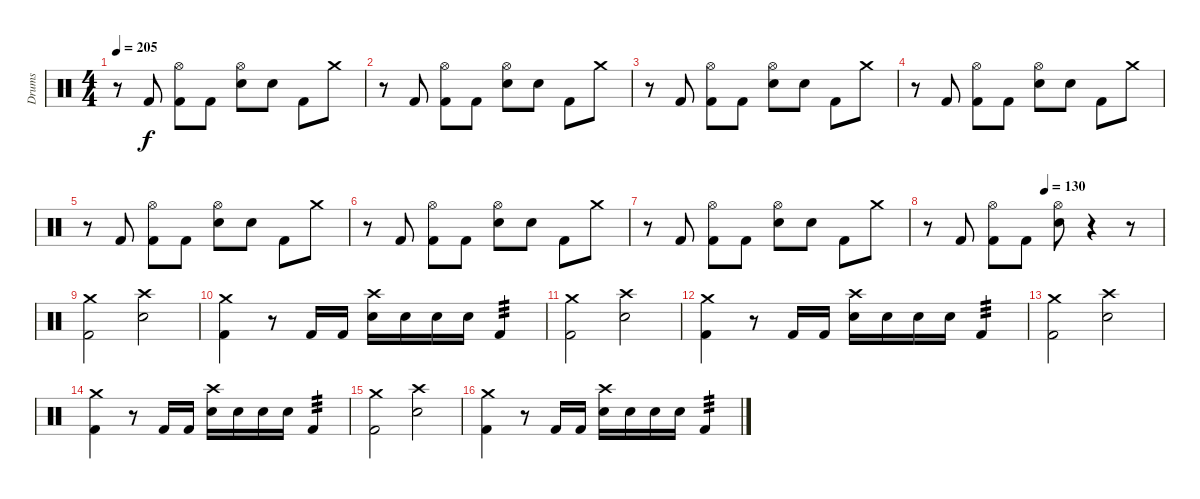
\track ("Drums" "Drums") {instrument percussion}
\staff {score}
\articulation defaults
\ts (4 4)
\tempo 205
\clef neutral
\ks c
r.8{dy f} "Kick (hit) 2".8 ("Hi-Hat (open)" "Kick (hit) 2").8 "Kick (hit) 2".8 ("Hi-Hat (open)" "Electric Snare (hit)").8 "Electric Snare (hit)".8 "Kick (hit) 2".8 "Crash medium (hit)".8 |
r.8 "Kick (hit) 2".8 ("Hi-Hat (open)" "Kick (hit) 2").8 "Kick (hit) 2".8 ("Hi-Hat (open)" "Electric Snare (hit)").8 "Electric Snare (hit)".8 "Kick (hit) 2".8 "Crash medium (hit)".8 |
r.8 "Kick (hit) 2".8 ("Hi-Hat (open)" "Kick (hit) 2").8 "Kick (hit) 2".8 ("Hi-Hat (open)" "Electric Snare (hit)").8 "Electric Snare (hit)".8 "Kick (hit) 2".8 "Crash medium (hit)".8 |
r.8 "Kick (hit) 2".8 ("Hi-Hat (open)" "Kick (hit) 2").8 "Kick (hit) 2".8 ("Hi-Hat (open)" "Electric Snare (hit)").8 "Electric Snare (hit)".8 "Kick (hit) 2".8 "Crash medium (hit)".8 |
r.8 "Kick (hit) 2".8 ("Hi-Hat (open)" "Kick (hit) 2").8 "Kick (hit) 2".8 ("Hi-Hat (open)" "Electric Snare (hit)").8 "Electric Snare (hit)".8 "Kick (hit) 2".8 "Crash medium (hit)".8 |
r.8 "Kick (hit) 2".8 ("Hi-Hat (open)" "Kick (hit) 2").8 "Kick (hit) 2".8 ("Hi-Hat (open)" "Electric Snare (hit)").8 "Electric Snare (hit)".8 "Kick (hit) 2".8 "Crash medium (hit)".8 |
r.8 "Kick (hit) 2".8 ("Hi-Hat (open)" "Kick (hit) 2").8 "Kick (hit) 2".8 ("Hi-Hat (open)" "Electric Snare (hit)").8 "Electric Snare (hit)".8 "Kick (hit) 2".8 "Crash medium (hit)".8 |
\tempo (130 0.5)
r.8 "Kick (hit) 2".8 ("Hi-Hat (open)" "Kick (hit) 2").8 "Kick (hit) 2".8 ("Hi-Hat (open)" "Electric Snare (hit)").8 r.4 r.8 |
("Crash medium (hit)" "Kick (hit) 2").2 ("Crash high (hit)" "Electric Snare (hit)").2 |
("Crash medium (hit)" "Kick (hit) 2").4 r.8 "Kick (hit) 2".16 "Kick (hit) 2".16 ("Crash high (hit)" "Electric Snare (hit)").16 "Electric Snare (hit)".16 "Electric Snare (hit)".16 "Electric Snare (hit)".16 "Kick (hit) 2".4{tp 3} |
("Crash medium (hit)" "Kick (hit) 2").2 ("Crash high (hit)" "Electric Snare (hit)").2 |
("Crash medium (hit)" "Kick (hit) 2").4 r.8 "Kick (hit) 2".16 "Kick (hit) 2".16 ("Crash high (hit)" "Electric Snare (hit)").16 "Electric Snare (hit)".16 "Electric Snare (hit)".16 "Electric Snare (hit)".16 "Kick (hit) 2".4{tp 3} |
("Crash medium (hit)" "Kick (hit) 2").2 ("Crash high (hit)" "Electric Snare (hit)").2 |
("Crash medium (hit)" "Kick (hit) 2").4 r.8 "Kick (hit) 2".16 "Kick (hit) 2".16 ("Crash high (hit)" "Electric Snare (hit)").16 "Electric Snare (hit)".16 "Electric Snare (hit)".16 "Electric Snare (hit)".16 "Kick (hit) 2".4{tp 3} |
("Crash medium (hit)" "Kick (hit) 2").2 ("Crash high (hit)" "Electric Snare (hit)").2 |
("Crash medium (hit)" "Kick (hit) 2").4 r.8 "Kick (hit) 2".16 "Kick (hit) 2".16 ("Crash high (hit)" "Electric Snare (hit)").16 "Electric Snare (hit)".16 "Electric Snare (hit)".16 "Electric Snare (hit)".16 "Kick (hit) 2".4{tp 3}
